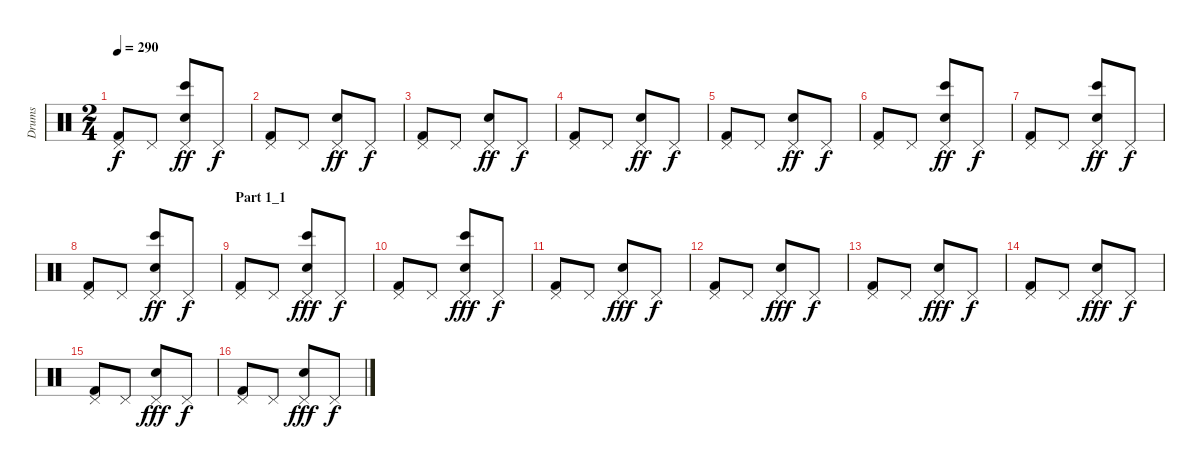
\track ("Drums" "Drums") {instrument percussion}
\staff {score}
\articulation defaults
\ts (2 4)
\tempo 290
\clef neutral
\ks c
("Pedal Hi-Hat (hit)" "Kick (hit) 2").8{dy f} "Pedal Hi-Hat (hit)".8 ("Pedal Hi-Hat (hit)" "Bongo High (hit)" "Electric Snare (hit)").8{dy ff} "Pedal Hi-Hat (hit)".8{dy f} |
("Pedal Hi-Hat (hit)" "Kick (hit) 2").8 "Pedal Hi-Hat (hit)".8 ("Pedal Hi-Hat (hit)" "Electric Snare (hit)").8{dy ff} "Pedal Hi-Hat (hit)".8{dy f} |
("Pedal Hi-Hat (hit)" "Kick (hit) 2").8 "Pedal Hi-Hat (hit)".8 ("Pedal Hi-Hat (hit)" "Electric Snare (hit)").8{dy ff} "Pedal Hi-Hat (hit)".8{dy f} |
("Pedal Hi-Hat (hit)" "Kick (hit) 2").8 "Pedal Hi-Hat (hit)".8 ("Pedal Hi-Hat (hit)" "Electric Snare (hit)").8{dy ff} "Pedal Hi-Hat (hit)".8{dy f} |
("Pedal Hi-Hat (hit)" "Kick (hit) 2").8 "Pedal Hi-Hat (hit)".8 ("Pedal Hi-Hat (hit)" "Electric Snare (hit)").8{dy ff} "Pedal Hi-Hat (hit)".8{dy f} |
("Pedal Hi-Hat (hit)" "Kick (hit) 2").8 "Pedal Hi-Hat (hit)".8 ("Pedal Hi-Hat (hit)" "Bongo High (hit)" "Electric Snare (hit)").8{dy ff} "Pedal Hi-Hat (hit)".8{dy f} |
("Pedal Hi-Hat (hit)" "Kick (hit) 2").8 "Pedal Hi-Hat (hit)".8 ("Pedal Hi-Hat (hit)" "Bongo High (hit)" "Electric Snare (hit)").8{dy ff} "Pedal Hi-Hat (hit)".8{dy f} |
("Pedal Hi-Hat (hit)" "Kick (hit) 2").8 "Pedal Hi-Hat (hit)".8 ("Pedal Hi-Hat (hit)" "Bongo High (hit)" "Electric Snare (hit)").8{dy ff} "Pedal Hi-Hat (hit)".8{dy f} |
\section ("" "Part 1_1")
("Pedal Hi-Hat (hit)" "Kick (hit) 2").8 "Pedal Hi-Hat (hit)".8 ("Pedal Hi-Hat (hit)" "Bongo High (hit)" "Electric Snare (hit)").8{dy fff} "Pedal Hi-Hat (hit)".8{dy f} |
("Pedal Hi-Hat (hit)" "Kick (hit) 2").8 "Pedal Hi-Hat (hit)".8 ("Pedal Hi-Hat (hit)" "Bongo High (hit)" "Electric Snare (hit)").8{dy fff} "Pedal Hi-Hat (hit)".8{dy f} |
("Pedal Hi-Hat (hit)" "Kick (hit) 2").8 "Pedal Hi-Hat (hit)".8 ("Pedal Hi-Hat (hit)" "Electric Snare (hit)").8{dy fff} "Pedal Hi-Hat (hit)".8{dy f} |
("Pedal Hi-Hat (hit)" "Kick (hit) 2").8 "Pedal Hi-Hat (hit)".8 ("Pedal Hi-Hat (hit)" "Electric Snare (hit)").8{dy fff} "Pedal Hi-Hat (hit)".8{dy f} |
("Pedal Hi-Hat (hit)" "Kick (hit) 2").8 "Pedal Hi-Hat (hit)".8 ("Pedal Hi-Hat (hit)" "Electric Snare (hit)").8{dy fff} "Pedal Hi-Hat (hit)".8{dy f} |
("Pedal Hi-Hat (hit)" "Kick (hit) 2").8 "Pedal Hi-Hat (hit)".8 ("Pedal Hi-Hat (hit)" "Electric Snare (hit)").8{dy fff} "Pedal Hi-Hat (hit)".8{dy f} |
("Pedal Hi-Hat (hit)" "Kick (hit) 2").8 "Pedal Hi-Hat (hit)".8 ("Pedal Hi-Hat (hit)" "Electric Snare (hit)").8{dy fff} "Pedal Hi-Hat (hit)".8{dy f} |
("Pedal Hi-Hat (hit)" "Kick (hit) 2").8 "Pedal Hi-Hat (hit)".8 ("Pedal Hi-Hat (hit)" "Electric Snare (hit)").8{dy fff} "Pedal Hi-Hat (hit)".8{dy f}
